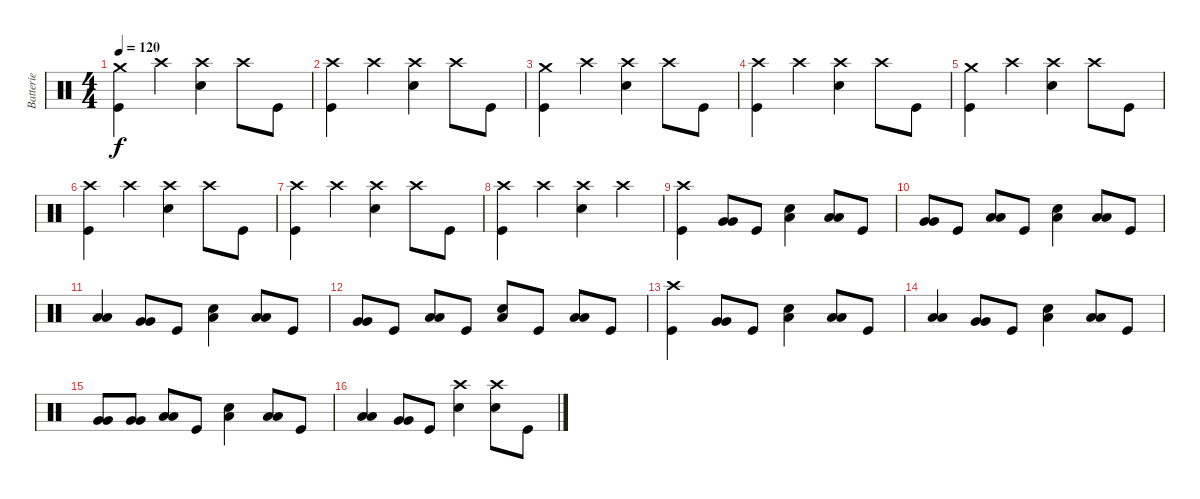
\track ("Batterie" "Batterie") {instrument percussion}
\staff {score}
\articulation defaults
\ts (4 4)
\tempo 120
\clef neutral
\ks c
("Crash medium (hit)" "Kick (hit)").4{dy f} "Crash high (hit)".4 ("Crash high (hit)" "Electric Snare (hit)").4 "Crash high (hit)".8 "Kick (hit)".8 |
("Crash high (hit)" "Kick (hit)").4 "Crash high (hit)".4 ("Crash high (hit)" "Electric Snare (hit)").4 "Crash high (hit)".8 "Kick (hit)".8 |
("Crash medium (hit)" "Kick (hit)").4 "Crash high (hit)".4 ("Crash high (hit)" "Electric Snare (hit)").4 "Crash high (hit)".8 "Kick (hit)".8 |
("Crash high (hit)" "Kick (hit)").4 "Crash high (hit)".4 ("Crash high (hit)" "Electric Snare (hit)").4 "Crash high (hit)".8 "Kick (hit)".8 |
("Crash medium (hit)" "Kick (hit)").4 "Crash high (hit)".4 ("Crash high (hit)" "Electric Snare (hit)").4 "Crash high (hit)".8 "Kick (hit)".8 |
("Crash high (hit)" "Kick (hit)").4 "Crash high (hit)".4 ("Crash high (hit)" "Electric Snare (hit)").4 "Crash high (hit)".8 "Kick (hit)".8 |
("Crash high (hit)" "Kick (hit)").4 "Crash high (hit)".4 ("Crash high (hit)" "Electric Snare (hit)").4 "Crash high (hit)".8 "Kick (hit)".8 |
("Crash high (hit)" "Kick (hit)").4 "Crash high (hit)".4 ("Crash high (hit)" "Electric Snare (hit)").4 "Crash high (hit)".4 |
("Crash high (hit)" "Kick (hit)").4 ("Very Low Tom (hit)" "Very Low Tom (hit)").8{bd 30} "Kick (hit)".8 ("Electric Snare (hit)" "Low Floor Tom (hit)").4 ("Low Tom (hit)" "Low Tom (hit)").8{bd 30} "Kick (hit)".8 |
("Very Low Tom (hit)" "Very Low Tom (hit)").8{bd 30} "Kick (hit)".8 ("Low Floor Tom (hit)" "Low Floor Tom (hit)").8{bd 30} "Kick (hit)".8 ("Electric Snare (hit)" "Low Floor Tom (hit)").4 ("Low Tom (hit)" "Low Tom (hit)").8{bd 30} "Kick (hit)".8 |
("Low Tom (hit)" "Low Tom (hit)").4{bd 30} ("Very Low Tom (hit)" "Very Low Tom (hit)").8{bd 30} "Kick (hit)".8 ("Electric Snare (hit)" "Low Floor Tom (hit)").4 ("Low Tom (hit)" "Low Tom (hit)").8{bd 30} "Kick (hit)".8 |
("Very Low Tom (hit)" "Very Low Tom (hit)").8{bd 30} "Kick (hit)".8 ("Low Floor Tom (hit)" "Low Floor Tom (hit)").8{bd 30} "Kick (hit)".8 ("Electric Snare (hit)" "Low Floor Tom (hit)").8 "Kick (hit)".8 ("Low Tom (hit)" "Low Tom (hit)").8{bd 30} "Kick (hit)".8 |
("Crash high (hit)" "Kick (hit)").4 ("Very Low Tom (hit)" "Very Low Tom (hit)").8{bd 30} "Kick (hit)".8 ("Electric Snare (hit)" "Low Floor Tom (hit)").4 ("Low Tom (hit)" "Low Tom (hit)").8{bd 30} "Kick (hit)".8 |
("Low Tom (hit)" "Low Tom (hit)").4{bd 30} ("Very Low Tom (hit)" "Very Low Tom (hit)").8{bd 30} "Kick (hit)".8 ("Electric Snare (hit)" "Low Floor Tom (hit)").4 ("Low Tom (hit)" "Low Tom (hit)").8{bd 30} "Kick (hit)".8 |
("Very Low Tom (hit)" "Very Low Tom (hit)").8{bd 30} ("Very Low Tom (hit)" "Very Low Tom (hit)").8{bd 30} ("Low Floor Tom (hit)" "Low Floor Tom (hit)").8{bd 30} "Kick (hit)".8 ("Electric Snare (hit)" "Low Floor Tom (hit)").4 ("Low Tom (hit)" "Low Tom (hit)").8{bd 30} "Kick (hit)".8 |
("Low Tom (hit)" "Low Tom (hit)").4{bd 30} ("Very Low Tom (hit)" "Very Low Tom (hit)").8{bd 30} "Kick (hit)".8 ("Crash high (hit)" "Electric Snare (hit)").4 ("Crash high (hit)" "Electric Snare (hit)").8 "Kick (hit)".8
